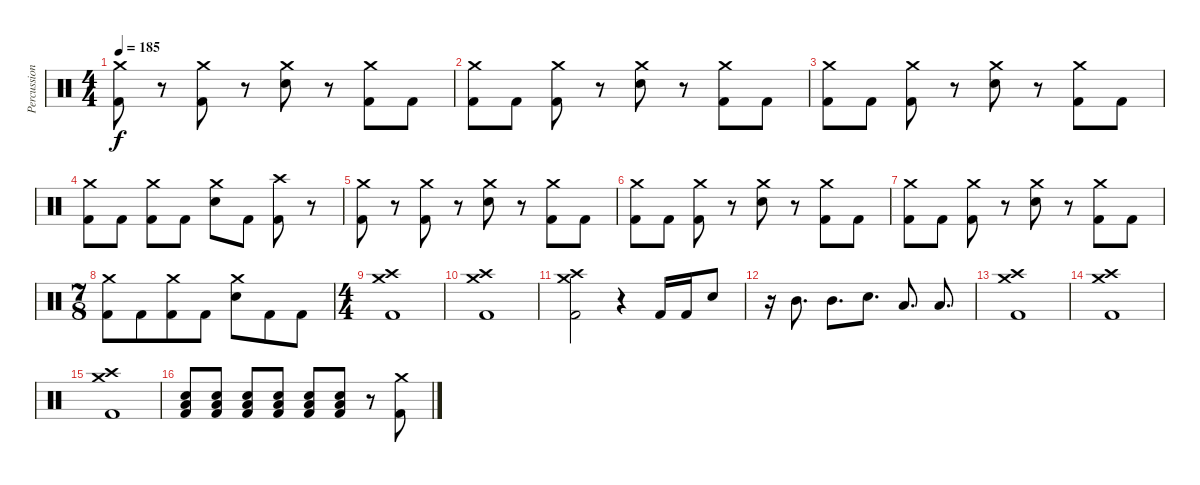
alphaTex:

\track ("Percussions" "Percussion") {instrument percussion}
\staff {score}
\articulation defaults
\ts (4 4)
\tempo 185
\clef neutral
\ks c
("Kick (hit) 2" "Crash medium (hit)").8{dy f} r.8 ("Kick (hit) 2" "Crash medium (hit)").8 r.8 ("Electric Snare (hit)" "Crash medium (hit)").8 r.8 ("Kick (hit) 2" "Crash medium (hit)").8 "Kick (hit) 2".8 |
("Kick (hit) 2" "Crash medium (hit)").8 "Kick (hit) 2".8 ("Kick (hit) 2" "Crash medium (hit)").8 r.8 ("Electric Snare (hit)" "Crash medium (hit)").8 r.8 ("Kick (hit) 2" "Crash medium (hit)").8 "Kick (hit) 2".8 |
("Kick (hit) 2" "Crash medium (hit)").8 "Kick (hit) 2".8 ("Kick (hit) 2" "Crash medium (hit)").8 r.8 ("Electric Snare (hit)" "Crash medium (hit)").8 r.8 ("Kick (hit) 2" "Crash medium (hit)").8 "Kick (hit) 2".8 |
("Kick (hit) 2" "Crash medium (hit)").8 "Kick (hit) 2".8 ("Kick (hit) 2" "Crash medium (hit)").8 "Kick (hit) 2".8 ("Electric Snare (hit)" "Crash medium (hit)").8 "Kick (hit) 2".8 ("Kick (hit) 2" "Crash high (hit)").8 r.8 |
("Kick (hit) 2" "Crash medium (hit)").8 r.8 ("Kick (hit) 2" "Crash medium (hit)").8 r.8 ("Electric Snare (hit)" "Crash medium (hit)").8 r.8 ("Kick (hit) 2" "Crash medium (hit)").8 "Kick (hit) 2".8 |
("Kick (hit) 2" "Crash medium (hit)").8 "Kick (hit) 2".8 ("Kick (hit) 2" "Crash medium (hit)").8 r.8 ("Electric Snare (hit)" "Crash medium (hit)").8 r.8 ("Kick (hit) 2" "Crash medium (hit)").8 "Kick (hit) 2".8 |
("Kick (hit) 2" "Crash medium (hit)").8 "Kick (hit) 2".8 ("Kick (hit) 2" "Crash medium (hit)").8 r.8 ("Electric Snare (hit)" "Crash medium (hit)").8 r.8 ("Kick (hit) 2" "Crash medium (hit)").8 "Kick (hit) 2".8 |
\ts (7 8)
("Kick (hit) 2" "Crash medium (hit)").8 "Kick (hit) 2".8 ("Kick (hit) 2" "Crash medium (hit)").8 "Kick (hit) 2".8 ("Electric Snare (hit)" "Crash medium (hit)").8 "Kick (hit) 2".8 "Kick (hit) 2".8 |
\ts (4 4)
("Kick (hit) 2" "Crash medium (hit)" "Crash high (hit)").1 |
("Kick (hit) 2" "Crash medium (hit)" "Crash high (hit)").1 |
("Kick (hit) 2" "Crash medium (hit)" "Crash high (hit)").2 r.4 "Kick (hit) 2".16 "Kick (hit) 2".16 "Electric Snare (hit)".8 |
r.16 "Mid Tom (hit)".8{d} "Mid Tom (hit)".8{d} "Electric Snare (hit)".8{d} "Low Tom (hit)".8{d} "Low Tom (hit)".8{d} |
("Kick (hit) 2" "Crash medium (hit)" "Crash high (hit)").1 |
("Kick (hit) 2" "Crash medium (hit)" "Crash high (hit)").1 |
("Kick (hit) 2" "Crash medium (hit)" "Crash high (hit)").1 |
("Kick (hit) 2" "Electric Snare (hit)" "Low Tom (hit)").8 ("Kick (hit) 2" "Electric Snare (hit)" "Low Tom (hit)").8 ("Kick (hit) 2" "Electric Snare (hit)" "Low Tom (hit)").8 ("Kick (hit) 2" "Electric Snare (hit)" "Low Tom (hit)").8 ("Kick (hit) 2" "Electric Snare (hit)" "Low Tom (hit)").8 ("Kick (hit) 2" "Electric Snare (hit)" "Low Tom (hit)").8 r.8 ("Kick (hit) 2" "Crash medium (hit)").8
